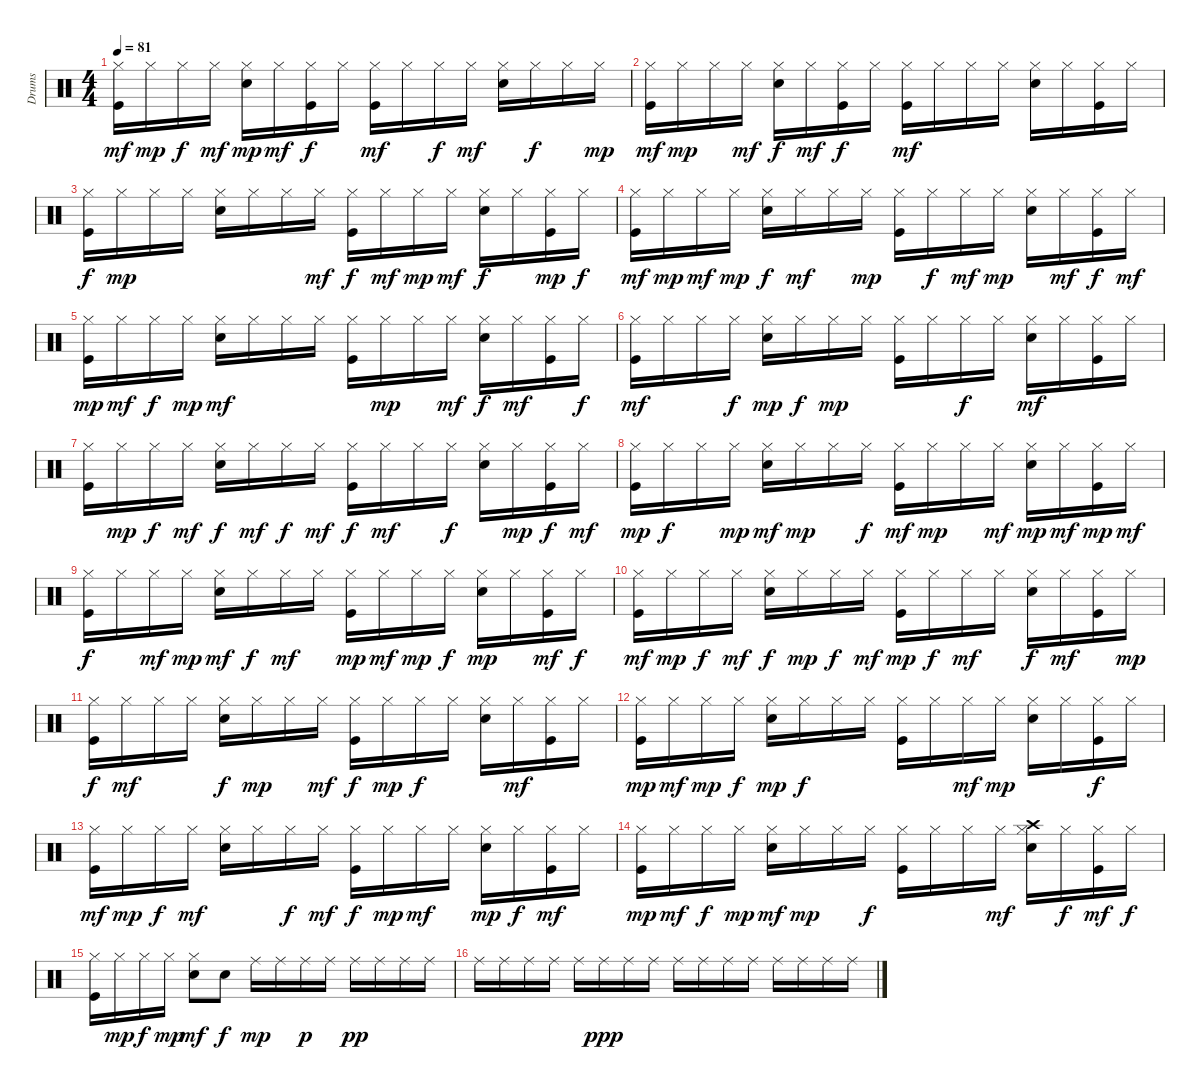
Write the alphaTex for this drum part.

\track ("Drums" "Drums") {instrument percussion}
\staff {score}
\articulation defaults
\ts (4 4)
\tempo 81
\clef neutral
\ks c
("Kick (hit)" "Hi-Hat (closed)").16{dy mf} "Hi-Hat (closed)".16{dy mp} "Hi-Hat (closed)".16{dy f} "Hi-Hat (closed)".16{dy mf} ("Electric Snare (hit)" "Hi-Hat (closed)").16{dy mp} "Hi-Hat (closed)".16{dy mf} ("Kick (hit)" "Hi-Hat (closed)").16{dy f} "Hi-Hat (closed)".16 ("Kick (hit)" "Hi-Hat (closed)").16{dy mf} "Hi-Hat (closed)".16 "Hi-Hat (closed)".16{dy f} "Hi-Hat (closed)".16{dy mf} ("Electric Snare (hit)" "Hi-Hat (closed)").16 "Hi-Hat (closed)".16{dy f} "Hi-Hat (closed)".16 "Hi-Hat (closed)".16{dy mp} |
("Kick (hit)" "Hi-Hat (closed)").16{dy mf} "Hi-Hat (closed)".16{dy mp} "Hi-Hat (closed)".16 "Hi-Hat (closed)".16{dy mf} ("Electric Snare (hit)" "Hi-Hat (closed)").16{dy f} "Hi-Hat (closed)".16{dy mf} ("Kick (hit)" "Hi-Hat (closed)").16{dy f} "Hi-Hat (closed)".16 ("Kick (hit)" "Hi-Hat (closed)").16{dy mf} "Hi-Hat (closed)".16 "Hi-Hat (closed)".16 "Hi-Hat (closed)".16 ("Electric Snare (hit)" "Hi-Hat (closed)").16 "Hi-Hat (closed)".16 ("Kick (hit)" "Hi-Hat (closed)").16 "Hi-Hat (closed)".16 |
("Kick (hit)" "Hi-Hat (closed)").16{dy f} "Hi-Hat (closed)".16{dy mp} "Hi-Hat (closed)".16 "Hi-Hat (closed)".16 ("Electric Snare (hit)" "Hi-Hat (closed)").16 "Hi-Hat (closed)".16 "Hi-Hat (closed)".16 "Hi-Hat (closed)".16{dy mf} ("Kick (hit)" "Hi-Hat (closed)").16{dy f} "Hi-Hat (closed)".16{dy mf} "Hi-Hat (closed)".16{dy mp} "Hi-Hat (closed)".16{dy mf} ("Electric Snare (hit)" "Hi-Hat (closed)").16{dy f} "Hi-Hat (closed)".16 ("Kick (hit)" "Hi-Hat (closed)").16{dy mp} "Hi-Hat (closed)".16{dy f} |
("Kick (hit)" "Hi-Hat (closed)").16{dy mf} "Hi-Hat (closed)".16{dy mp} "Hi-Hat (closed)".16{dy mf} "Hi-Hat (closed)".16{dy mp} ("Electric Snare (hit)" "Hi-Hat (closed)").16{dy f} "Hi-Hat (closed)".16{dy mf} "Hi-Hat (closed)".16 "Hi-Hat (closed)".16{dy mp} ("Kick (hit)" "Hi-Hat (closed)").16 "Hi-Hat (closed)".16{dy f} "Hi-Hat (closed)".16{dy mf} "Hi-Hat (closed)".16{dy mp} ("Electric Snare (hit)" "Hi-Hat (closed)").16 "Hi-Hat (closed)".16{dy mf} ("Kick (hit)" "Hi-Hat (closed)").16{dy f} "Hi-Hat (closed)".16{dy mf} |
("Kick (hit)" "Hi-Hat (closed)").16{dy mp} "Hi-Hat (closed)".16{dy mf} "Hi-Hat (closed)".16{dy f} "Hi-Hat (closed)".16{dy mp} ("Electric Snare (hit)" "Hi-Hat (closed)").16{dy mf} "Hi-Hat (closed)".16 "Hi-Hat (closed)".16 "Hi-Hat (closed)".16 ("Kick (hit)" "Hi-Hat (closed)").16 "Hi-Hat (closed)".16{dy mp} "Hi-Hat (closed)".16 "Hi-Hat (closed)".16{dy mf} ("Electric Snare (hit)" "Hi-Hat (closed)").16{dy f} "Hi-Hat (closed)".16{dy mf} ("Kick (hit)" "Hi-Hat (closed)").16 "Hi-Hat (closed)".16{dy f} |
("Kick (hit)" "Hi-Hat (closed)").16{dy mf} "Hi-Hat (closed)".16 "Hi-Hat (closed)".16 "Hi-Hat (closed)".16{dy f} ("Electric Snare (hit)" "Hi-Hat (closed)").16{dy mp} "Hi-Hat (closed)".16{dy f} "Hi-Hat (closed)".16{dy mp} "Hi-Hat (closed)".16 ("Kick (hit)" "Hi-Hat (closed)").16 "Hi-Hat (closed)".16 "Hi-Hat (closed)".16{dy f} "Hi-Hat (closed)".16 ("Electric Snare (hit)" "Hi-Hat (closed)").16{dy mf} "Hi-Hat (closed)".16 ("Kick (hit)" "Hi-Hat (closed)").16 "Hi-Hat (closed)".16 |
("Kick (hit)" "Hi-Hat (closed)").16 "Hi-Hat (closed)".16{dy mp} "Hi-Hat (closed)".16{dy f} "Hi-Hat (closed)".16{dy mf} ("Electric Snare (hit)" "Hi-Hat (closed)").16{dy f} "Hi-Hat (closed)".16{dy mf} "Hi-Hat (closed)".16{dy f} "Hi-Hat (closed)".16{dy mf} ("Kick (hit)" "Hi-Hat (closed)").16{dy f} "Hi-Hat (closed)".16{dy mf} "Hi-Hat (closed)".16 "Hi-Hat (closed)".16{dy f} ("Electric Snare (hit)" "Hi-Hat (closed)").16 "Hi-Hat (closed)".16{dy mp} ("Kick (hit)" "Hi-Hat (closed)").16{dy f} "Hi-Hat (closed)".16{dy mf} |
("Kick (hit)" "Hi-Hat (closed)").16{dy mp} "Hi-Hat (closed)".16{dy f} "Hi-Hat (closed)".16 "Hi-Hat (closed)".16{dy mp} ("Electric Snare (hit)" "Hi-Hat (closed)").16{dy mf} "Hi-Hat (closed)".16{dy mp} "Hi-Hat (closed)".16 "Hi-Hat (closed)".16{dy f} ("Kick (hit)" "Hi-Hat (closed)").16{dy mf} "Hi-Hat (closed)".16{dy mp} "Hi-Hat (closed)".16 "Hi-Hat (closed)".16{dy mf} ("Electric Snare (hit)" "Hi-Hat (closed)").16{dy mp} "Hi-Hat (closed)".16{dy mf} ("Kick (hit)" "Hi-Hat (closed)").16{dy mp} "Hi-Hat (closed)".16{dy mf} |
("Kick (hit)" "Hi-Hat (closed)").16{dy f} "Hi-Hat (closed)".16 "Hi-Hat (closed)".16{dy mf} "Hi-Hat (closed)".16{dy mp} ("Electric Snare (hit)" "Hi-Hat (closed)").16{dy mf} "Hi-Hat (closed)".16{dy f} "Hi-Hat (closed)".16{dy mf} "Hi-Hat (closed)".16 ("Kick (hit)" "Hi-Hat (closed)").16{dy mp} "Hi-Hat (closed)".16{dy mf} "Hi-Hat (closed)".16{dy mp} "Hi-Hat (closed)".16{dy f} ("Electric Snare (hit)" "Hi-Hat (closed)").16{dy mp} "Hi-Hat (closed)".16 ("Kick (hit)" "Hi-Hat (closed)").16{dy mf} "Hi-Hat (closed)".16{dy f} |
("Kick (hit)" "Hi-Hat (closed)").16{dy mf} "Hi-Hat (closed)".16{dy mp} "Hi-Hat (closed)".16{dy f} "Hi-Hat (closed)".16{dy mf} ("Electric Snare (hit)" "Hi-Hat (closed)").16{dy f} "Hi-Hat (closed)".16{dy mp} "Hi-Hat (closed)".16{dy f} "Hi-Hat (closed)".16{dy mf} ("Kick (hit)" "Hi-Hat (closed)").16{dy mp} "Hi-Hat (closed)".16{dy f} "Hi-Hat (closed)".16{dy mf} "Hi-Hat (closed)".16 ("Electric Snare (hit)" "Hi-Hat (closed)").16{dy f} "Hi-Hat (closed)".16{dy mf} ("Kick (hit)" "Hi-Hat (closed)").16 "Hi-Hat (closed)".16{dy mp} |
("Kick (hit)" "Hi-Hat (closed)").16{dy f} "Hi-Hat (closed)".16{dy mf} "Hi-Hat (closed)".16 "Hi-Hat (closed)".16 ("Electric Snare (hit)" "Hi-Hat (closed)").16{dy f} "Hi-Hat (closed)".16{dy mp} "Hi-Hat (closed)".16 "Hi-Hat (closed)".16{dy mf} ("Kick (hit)" "Hi-Hat (closed)").16{dy f} "Hi-Hat (closed)".16{dy mp} "Hi-Hat (closed)".16{dy f} "Hi-Hat (closed)".16 ("Electric Snare (hit)" "Hi-Hat (closed)").16 "Hi-Hat (closed)".16{dy mf} ("Kick (hit)" "Hi-Hat (closed)").16 "Hi-Hat (closed)".16 |
("Kick (hit)" "Hi-Hat (closed)").16{dy mp} "Hi-Hat (closed)".16{dy mf} "Hi-Hat (closed)".16{dy mp} "Hi-Hat (closed)".16{dy f} ("Electric Snare (hit)" "Hi-Hat (closed)").16{dy mp} "Hi-Hat (closed)".16{dy f} "Hi-Hat (closed)".16 "Hi-Hat (closed)".16 ("Kick (hit)" "Hi-Hat (closed)").16 "Hi-Hat (closed)".16 "Hi-Hat (closed)".16{dy mf} "Hi-Hat (closed)".16{dy mp} ("Electric Snare (hit)" "Hi-Hat (closed)").16 "Hi-Hat (closed)".16 ("Kick (hit)" "Hi-Hat (closed)").16{dy f} "Hi-Hat (closed)".16 |
("Kick (hit)" "Hi-Hat (closed)").16{dy mf} "Hi-Hat (closed)".16{dy mp} "Hi-Hat (closed)".16{dy f} "Hi-Hat (closed)".16{dy mf} ("Electric Snare (hit)" "Hi-Hat (closed)").16 "Hi-Hat (closed)".16 "Hi-Hat (closed)".16{dy f} "Hi-Hat (closed)".16{dy mf} ("Kick (hit)" "Hi-Hat (closed)").16{dy f} "Hi-Hat (closed)".16{dy mp} "Hi-Hat (closed)".16{dy mf} "Hi-Hat (closed)".16 ("Electric Snare (hit)" "Hi-Hat (closed)").16{dy mp} "Hi-Hat (closed)".16{dy f} ("Kick (hit)" "Hi-Hat (closed)").16{dy mf} "Hi-Hat (closed)".16 |
("Kick (hit)" "Hi-Hat (closed)").16{dy mp} "Hi-Hat (closed)".16{dy mf} "Hi-Hat (closed)".16{dy f} "Hi-Hat (closed)".16{dy mp} ("Electric Snare (hit)" "Hi-Hat (closed)").16{dy mf} "Hi-Hat (closed)".16{dy mp} "Hi-Hat (closed)".16 "Hi-Hat (closed)".16{dy f} ("Kick (hit)" "Hi-Hat (closed)").16 "Hi-Hat (closed)".16 "Hi-Hat (closed)".16 "Hi-Hat (closed)".16{dy mf} ("Electric Snare (hit)" "Hi-Hat (closed)" "Crash high (hit)").16 "Hi-Hat (closed)".16{dy f} ("Kick (hit)" "Hi-Hat (closed)").16{dy mf} "Hi-Hat (closed)".16{dy f} |
("Kick (hit)" "Hi-Hat (closed)").16 "Hi-Hat (closed)".16{dy mp} "Hi-Hat (closed)".16{dy f} "Hi-Hat (closed)".16{dy mp} ("Electric Snare (hit)" "Hi-Hat (closed)").8{dy mf} "Electric Snare (hit)".8{dy f} "Ride (middle)".16{dy mp} "Ride (middle)".16 "Ride (middle)".16{dy p} "Ride (middle)".16 "Ride (middle)".16{dy pp} "Ride (middle)".16 "Ride (middle)".16 "Ride (middle)".16 |
"Ride (middle)".16 "Ride (middle)".16 "Ride (middle)".16 "Ride (middle)".16 "Ride (middle)".16 "Ride (middle)".16{dy ppp} "Ride (middle)".16 "Ride (middle)".16 "Ride (middle)".16 "Ride (middle)".16 "Ride (middle)".16 "Ride (middle)".16 "Ride (middle)".16 "Ride (middle)".16 "Ride (middle)".16 "Ride (middle)".16
